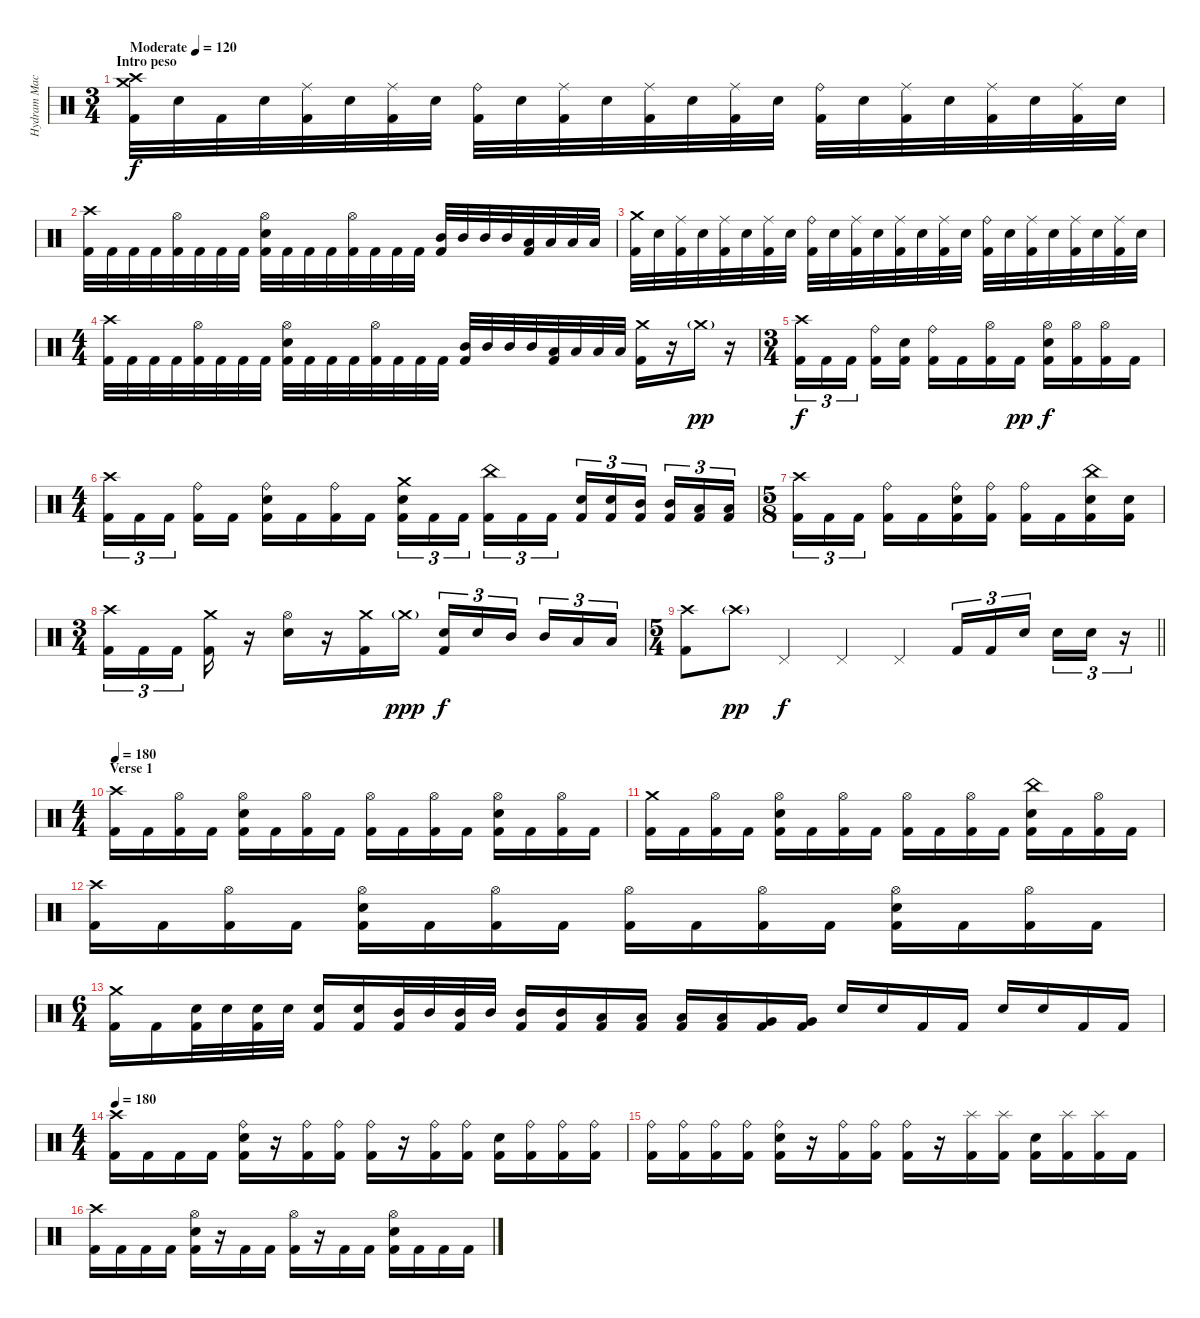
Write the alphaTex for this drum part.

\track ("Hydram Machine" "Hydram Mac") {instrument percussion}
\staff {score}
\articulation defaults
\ts (3 4)
\section ("" "Intro peso")
\tempo (120 "Moderate")
\clef neutral
\ks c
("Crash high (hit)" "Crash medium (hit)" "Kick (hit) 2").32{dy f} "Electric Snare (hit)".32 "Kick (hit) 2".32 "Electric Snare (hit)".32 ("Ride (middle)" "Kick (hit) 2").32 "Electric Snare (hit)".32 ("Ride (middle)" "Kick (hit) 2").32 "Electric Snare (hit)".32 ("Ride (bell)" "Kick (hit) 2").32 "Electric Snare (hit)".32 ("Ride (middle)" "Kick (hit) 2").32 "Electric Snare (hit)".32 ("Ride (middle)" "Kick (hit) 2").32 "Electric Snare (hit)".32 ("Ride (middle)" "Kick (hit) 2").32 "Electric Snare (hit)".32 ("Ride (bell)" "Kick (hit) 2").32 "Electric Snare (hit)".32 ("Ride (middle)" "Kick (hit) 2").32 "Electric Snare (hit)".32 ("Ride (middle)" "Kick (hit) 2").32 "Electric Snare (hit)".32 ("Ride (middle)" "Kick (hit) 2").32 "Electric Snare (hit)".32 |
("Crash high (hit)" "Kick (hit) 2").32 "Kick (hit) 2".32 "Kick (hit) 2".32 "Kick (hit) 2".32 ("Hi-Hat (open)" "Kick (hit) 2").32 "Kick (hit) 2".32 "Kick (hit) 2".32 "Kick (hit) 2".32 ("Hi-Hat (open)" "Electric Snare (hit)" "Kick (hit) 2").32 "Kick (hit) 2".32 "Kick (hit) 2".32 "Kick (hit) 2".32 ("Hi-Hat (open)" "Kick (hit) 2").32 "Kick (hit) 2".32 "Kick (hit) 2".32 "Kick (hit) 2".32 ("Mid Tom (hit)" "Kick (hit) 2").32 "Mid Tom (hit)".32 "Mid Tom (hit)".32 "Mid Tom (hit)".32 ("Low Tom (hit)" "Kick (hit) 2").32 "Low Tom (hit)".32 "Low Tom (hit)".32 "Low Tom (hit)".32 |
("Crash medium (hit)" "Kick (hit) 2").32 "Electric Snare (hit)".32 ("Ride (middle)" "Kick (hit) 2").32 "Electric Snare (hit)".32 ("Ride (middle)" "Kick (hit) 2").32 "Electric Snare (hit)".32 ("Ride (middle)" "Kick (hit) 2").32 "Electric Snare (hit)".32 ("Ride (bell)" "Kick (hit) 2").32 "Electric Snare (hit)".32 ("Ride (middle)" "Kick (hit) 2").32 "Electric Snare (hit)".32 ("Ride (middle)" "Kick (hit) 2").32 "Electric Snare (hit)".32 ("Ride (middle)" "Kick (hit) 2").32 "Electric Snare (hit)".32 ("Ride (bell)" "Kick (hit) 2").32 "Electric Snare (hit)".32 ("Ride (middle)" "Kick (hit) 2").32 "Electric Snare (hit)".32 ("Ride (middle)" "Kick (hit) 2").32 "Electric Snare (hit)".32 ("Ride (middle)" "Kick (hit) 2").32 "Electric Snare (hit)".32 |
\ts (4 4)
("Crash high (hit)" "Kick (hit) 2").32 "Kick (hit) 2".32 "Kick (hit) 2".32 "Kick (hit) 2".32 ("Hi-Hat (open)" "Kick (hit) 2").32 "Kick (hit) 2".32 "Kick (hit) 2".32 "Kick (hit) 2".32 ("Hi-Hat (open)" "Electric Snare (hit)" "Kick (hit) 2").32 "Kick (hit) 2".32 "Kick (hit) 2".32 "Kick (hit) 2".32 ("Hi-Hat (open)" "Kick (hit) 2").32 "Kick (hit) 2".32 "Kick (hit) 2".32 "Kick (hit) 2".32 ("Mid Tom (hit)" "Kick (hit) 2").32 "Mid Tom (hit)".32 "Mid Tom (hit)".32 "Mid Tom (hit)".32 ("Low Tom (hit)" "Kick (hit) 2").32 "Low Tom (hit)".32 "Low Tom (hit)".32 "Low Tom (hit)".32 ("Crash medium (hit)" "Kick (hit) 2").16 r.16 "Crash medium (hit)"{g}.16{dy pp} r.16 |
\ts (3 4)
("Crash high (hit)" "Kick (hit) 2").16{tu (3 2) dy f} "Kick (hit) 2".16{tu (3 2)} "Kick (hit) 2".16{tu (3 2) beam splitsecondary} ("Ride (bell)" "Kick (hit) 2").16 ("Electric Snare (hit)" "Kick (hit) 2").16 ("Ride (bell)" "Kick (hit) 2").16 "Kick (hit) 2".16 ("Hi-Hat (open)" "Kick (hit) 2").16 "Kick (hit) 2".16{dy pp} ("Hi-Hat (open)" "Electric Snare (hit)" "Kick (hit) 2").16{dy f} ("Hi-Hat (open)" "Kick (hit) 2").16 ("Hi-Hat (open)" "Kick (hit) 2").16 "Kick (hit) 2".16 |
\ts (4 4)
("Crash high (hit)" "Kick (hit) 2").16{tu (3 2)} "Kick (hit) 2".16{tu (3 2)} "Kick (hit) 2".16{tu (3 2) beam splitsecondary} ("Ride (bell)" "Kick (hit) 2").16 "Kick (hit) 2".16 ("Ride (bell)" "Electric Snare (hit)" "Kick (hit) 2").16 "Kick (hit) 2".16 ("Ride (bell)" "Kick (hit) 2").16 "Kick (hit) 2".16 ("Crash medium (hit)" "Electric Snare (hit)" "Kick (hit) 2").16{tu (3 2)} "Kick (hit) 2".16{tu (3 2)} "Kick (hit) 2".16{tu (3 2) beam splitsecondary} ("China (hit)" "Kick (hit) 2").16{tu (3 2)} "Kick (hit) 2".16{tu (3 2)} "Kick (hit) 2".16{tu (3 2)} ("Electric Snare (hit)" "Kick (hit) 2").16{tu (3 2)} ("Electric Snare (hit)" "Kick (hit) 2").16{tu (3 2)} ("Mid Tom (hit)" "Kick (hit) 2").16{tu (3 2) beam splitsecondary} ("Mid Tom (hit)" "Kick (hit) 2").16{tu (3 2)} ("Low Tom (hit)" "Kick (hit) 2").16{tu (3 2)} ("Low Tom (hit)" "Kick (hit) 2").16{tu (3 2)} |
\ts (5 8)
("Crash high (hit)" "Kick (hit) 2").16{tu (3 2)} "Kick (hit) 2".16{tu (3 2)} "Kick (hit) 2".16{tu (3 2)} ("Ride (bell)" "Kick (hit) 2").16 "Kick (hit) 2".16 ("Ride (bell)" "Electric Snare (hit)" "Kick (hit) 2").16 ("Ride (bell)" "Kick (hit) 2").16 ("Ride (bell)" "Kick (hit) 2").16 "Kick (hit) 2".16 ("China (hit)" "Electric Snare (hit)" "Kick (hit) 2").16 ("Electric Snare (hit)" "Kick (hit) 2").16 |
\ts (3 4)
("Crash high (hit)" "Kick (hit) 2").16{tu (3 2)} "Kick (hit) 2".16{tu (3 2)} "Kick (hit) 2".16{tu (3 2) beam splitsecondary} ("Crash medium (hit)" "Kick (hit) 2").16 r.16 ("Hi-Hat (open)" "Electric Snare (hit)").16 r.16 ("Crash medium (hit)" "Kick (hit) 2").16 "Crash medium (hit)"{g}.16{dy ppp} ("Electric Snare (hit)" "Kick (hit) 2").16{tu (3 2) dy f} "Electric Snare (hit)".16{tu (3 2)} "Mid Tom (hit)".16{tu (3 2) beam splitsecondary} "Mid Tom (hit)".16{tu (3 2)} "Low Tom (hit)".16{tu (3 2)} "Low Tom (hit)".16{tu (3 2)} |
\ts (5 4)
\barLineRight lightlight
("Crash high (hit)" "Kick (hit) 2").8 "Crash high (hit)"{g}.8{dy pp} "Pedal Hi-Hat (hit)".4{dy f} "Pedal Hi-Hat (hit)".4 "Pedal Hi-Hat (hit)".4 "Kick (hit) 2".16{tu (3 2)} "Kick (hit) 2".16{tu (3 2)} "Electric Snare (hit)".16{tu (3 2) beam splitsecondary} "Electric Snare (hit)".16{tu (3 2)} "Electric Snare (hit)".16{tu (3 2)} r.16{tu (3 2)} |
\ts (4 4)
\section ("" "Verse 1")
\tempo 180
("Crash high (hit)" "Kick (hit) 2").16 "Kick (hit) 2".16 ("Hi-Hat (open)" "Kick (hit) 2").16 "Kick (hit) 2".16 ("Hi-Hat (open)" "Electric Snare (hit)" "Kick (hit) 2").16 "Kick (hit) 2".16 ("Hi-Hat (open)" "Kick (hit) 2").16 "Kick (hit) 2".16 ("Hi-Hat (open)" "Kick (hit) 2").16 "Kick (hit) 2".16 ("Hi-Hat (open)" "Kick (hit) 2").16 "Kick (hit) 2".16 ("Hi-Hat (open)" "Electric Snare (hit)" "Kick (hit) 2").16 "Kick (hit) 2".16 ("Hi-Hat (open)" "Kick (hit) 2").16 "Kick (hit) 2".16 |
("Crash medium (hit)" "Kick (hit) 2").16 "Kick (hit) 2".16 ("Hi-Hat (open)" "Kick (hit) 2").16 "Kick (hit) 2".16 ("Hi-Hat (open)" "Electric Snare (hit)" "Kick (hit) 2").16 "Kick (hit) 2".16 ("Hi-Hat (open)" "Kick (hit) 2").16 "Kick (hit) 2".16 ("Hi-Hat (open)" "Kick (hit) 2").16 "Kick (hit) 2".16 ("Hi-Hat (open)" "Kick (hit) 2").16 "Kick (hit) 2".16 ("China (hit)" "Electric Snare (hit)" "Kick (hit) 2").16 "Kick (hit) 2".16 ("Hi-Hat (open)" "Kick (hit) 2").16 "Kick (hit) 2".16 |
("Crash high (hit)" "Kick (hit) 2").16 "Kick (hit) 2".16 ("Hi-Hat (open)" "Kick (hit) 2").16 "Kick (hit) 2".16 ("Hi-Hat (open)" "Electric Snare (hit)" "Kick (hit) 2").16 "Kick (hit) 2".16 ("Hi-Hat (open)" "Kick (hit) 2").16 "Kick (hit) 2".16 ("Hi-Hat (open)" "Kick (hit) 2").16 "Kick (hit) 2".16 ("Hi-Hat (open)" "Kick (hit) 2").16 "Kick (hit) 2".16 ("Hi-Hat (open)" "Electric Snare (hit)" "Kick (hit) 2").16 "Kick (hit) 2".16 ("Hi-Hat (open)" "Kick (hit) 2").16 "Kick (hit) 2".16 |
\ts (6 4)
("Crash medium (hit)" "Kick (hit) 2").16 "Kick (hit) 2".16 ("Electric Snare (hit)" "Kick (hit) 2").32 "Electric Snare (hit)".32 ("Electric Snare (hit)" "Kick (hit) 2").32 "Electric Snare (hit)".32 ("Electric Snare (hit)" "Kick (hit) 2").16 ("Electric Snare (hit)" "Kick (hit) 2").16 ("Mid Tom (hit)" "Kick (hit) 2").32 "Mid Tom (hit)".32 ("Mid Tom (hit)" "Kick (hit) 2").32 "Mid Tom (hit)".32 ("Mid Tom (hit)" "Kick (hit) 2").16 ("Mid Tom (hit)" "Kick (hit) 2").16 ("Low Tom (hit)" "Kick (hit) 2").16 ("Low Tom (hit)" "Kick (hit) 2").16 ("Low Tom (hit)" "Kick (hit) 2").16 ("Low Tom (hit)" "Kick (hit) 2").16 ("Very Low Tom (hit)" "Kick (hit) 2").16 ("Very Low Tom (hit)" "Kick (hit) 2").16 "Electric Snare (hit)".16 "Electric Snare (hit)".16 "Kick (hit) 2".16 "Kick (hit) 2".16 "Electric Snare (hit)".16 "Electric Snare (hit)".16 "Kick (hit) 2".16 "Kick (hit) 2".16 |
\ts (4 4)
\tempo 180
("Crash high (hit)" "Kick (hit) 2").16 "Kick (hit) 2".16 "Kick (hit) 2".16 "Kick (hit) 2".16 ("Ride (bell)" "Electric Snare (hit)" "Kick (hit) 2").16 r.16 ("Ride (bell)" "Kick (hit) 2").16 ("Ride (bell)" "Kick (hit) 2").16 ("Ride (bell)" "Kick (hit) 2").16 r.16 ("Ride (bell)" "Kick (hit) 2").16 ("Ride (bell)" "Kick (hit) 2").16 ("Electric Snare (hit)" "Kick (hit) 2").16 ("Ride (bell)" "Kick (hit) 2").16 ("Ride (bell)" "Kick (hit) 2").16 ("Ride (bell)" "Kick (hit) 2").16 |
("Ride (bell)" "Kick (hit) 2").16 ("Ride (bell)" "Kick (hit) 2").16 ("Ride (bell)" "Kick (hit) 2").16 ("Ride (bell)" "Kick (hit) 2").16 ("Ride (bell)" "Electric Snare (hit)" "Kick (hit) 2").16 r.16 ("Ride (bell)" "Kick (hit) 2").16 ("Ride (bell)" "Kick (hit) 2").16 ("Ride (bell)" "Kick (hit) 2").16 r.16 ("Splash (hit)" "Kick (hit) 2").16 ("Splash (hit)" "Kick (hit) 2").16 ("Electric Snare (hit)" "Kick (hit) 2").16 ("Splash (hit)" "Kick (hit) 2").16 ("Splash (hit)" "Kick (hit) 2").16 "Kick (hit) 2".16 |
("Crash high (hit)" "Kick (hit) 2").16 "Kick (hit) 2".16 "Kick (hit) 2".16 "Kick (hit) 2".16 ("Hi-Hat (open)" "Electric Snare (hit)" "Kick (hit) 2").16 r.16 "Kick (hit) 2".16 "Kick (hit) 2".16 ("Hi-Hat (open)" "Kick (hit) 2").16 r.16 "Kick (hit) 2".16 "Kick (hit) 2".16 ("Hi-Hat (open)" "Electric Snare (hit)" "Kick (hit) 2").16 "Kick (hit) 2".16 "Kick (hit) 2".16 "Kick (hit) 2".16
